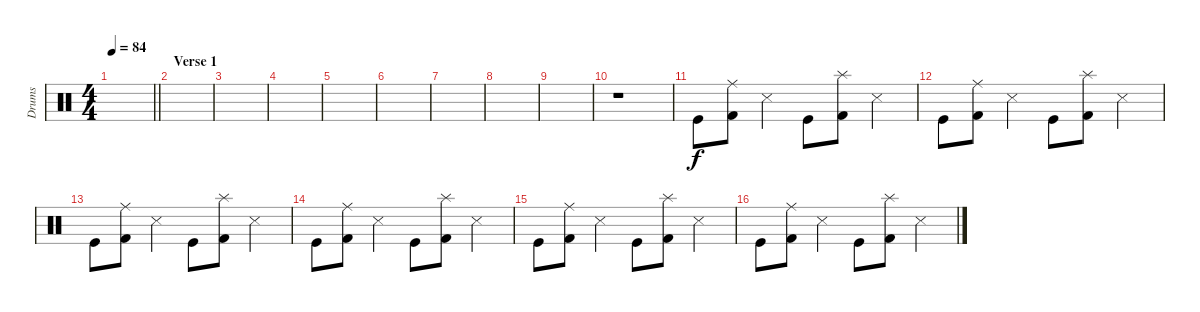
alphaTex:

\track ("Drums" "Drums") {instrument percussion}
\staff {score}
\articulation defaults
\ts (4 4)
\tempo 84
\clef neutral
\barLineRight lightlight
\ks c
|
\section ("" "Verse 1")
|
|
|
|
|
|
|
|
r.1 |
"Kick (hit)".8 ("Kick (hit) 2" "Ride (middle)").8 "Snare (side stick) 3".4 "Kick (hit)".8 ("Kick (hit) 2" "Splash (hit)").8 "Snare (side stick) 3".4 |
"Kick (hit)".8 ("Kick (hit) 2" "Ride (middle)").8 "Snare (side stick) 3".4 "Kick (hit)".8 ("Kick (hit) 2" "Splash (hit)").8 "Snare (side stick) 3".4 |
"Kick (hit)".8 ("Kick (hit) 2" "Ride (middle)").8 "Snare (side stick) 3".4 "Kick (hit)".8 ("Kick (hit) 2" "Splash (hit)").8 "Snare (side stick) 3".4 |
"Kick (hit)".8 ("Kick (hit) 2" "Ride (middle)").8 "Snare (side stick) 3".4 "Kick (hit)".8 ("Kick (hit) 2" "Splash (hit)").8 "Snare (side stick) 3".4 |
"Kick (hit)".8 ("Kick (hit) 2" "Ride (middle)").8 "Snare (side stick) 3".4 "Kick (hit)".8 ("Kick (hit) 2" "Splash (hit)").8 "Snare (side stick) 3".4 |
"Kick (hit)".8 ("Kick (hit) 2" "Ride (middle)").8 "Snare (side stick) 3".4 "Kick (hit)".8 ("Kick (hit) 2" "Splash (hit)").8 "Snare (side stick) 3".4
